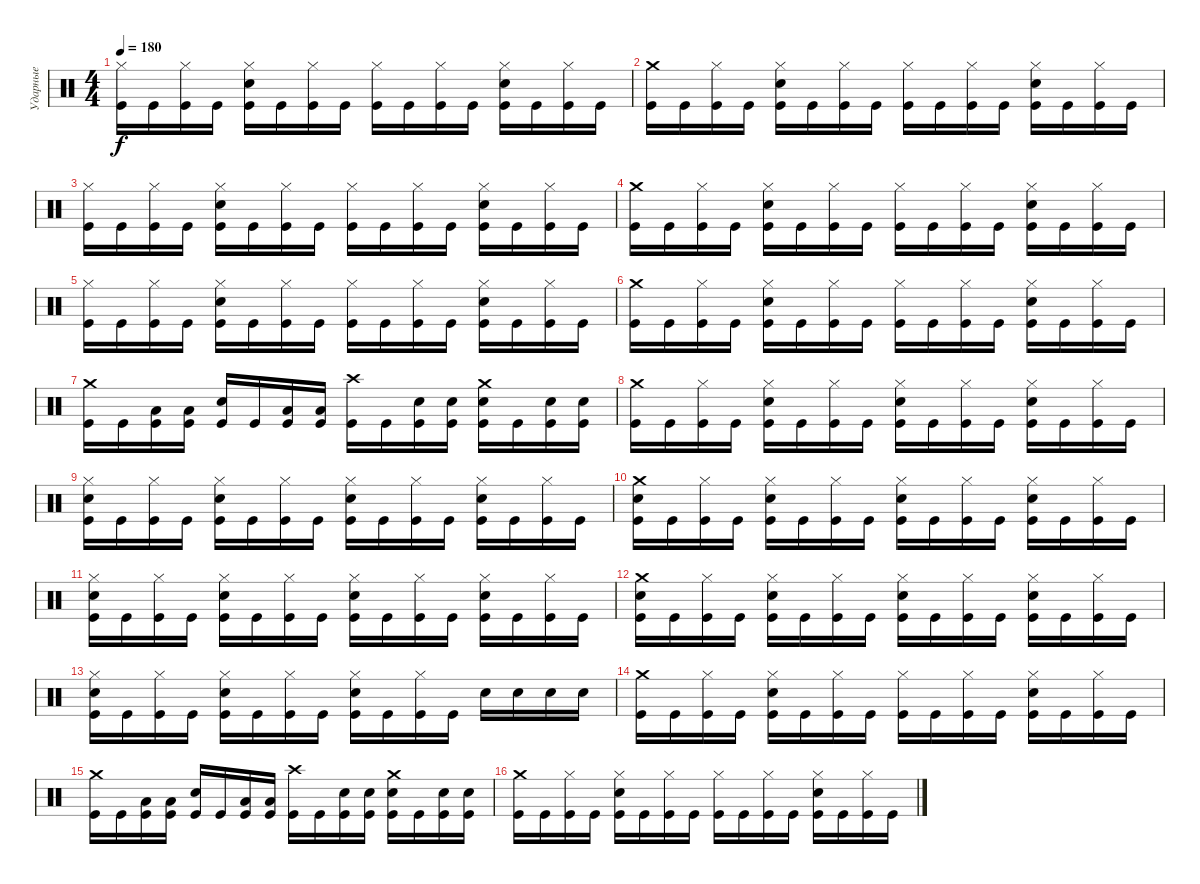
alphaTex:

\track ("Ударные" "Ударные") {instrument percussion}
\staff {score}
\articulation defaults
\ts (4 4)
\tempo 180
\clef neutral
\ks c
("Hi-Hat (closed)" "Kick (hit)").16{dy f} "Kick (hit)".16 ("Hi-Hat (closed)" "Kick (hit)").16 "Kick (hit)".16 ("Hi-Hat (closed)" "Electric Snare (hit)" "Kick (hit)").16 "Kick (hit)".16 ("Hi-Hat (closed)" "Kick (hit)").16 "Kick (hit)".16 ("Hi-Hat (closed)" "Kick (hit)").16 "Kick (hit)".16 ("Hi-Hat (closed)" "Kick (hit)").16 "Kick (hit)".16 ("Hi-Hat (closed)" "Electric Snare (hit)" "Kick (hit)").16 "Kick (hit)".16 ("Hi-Hat (closed)" "Kick (hit)").16 "Kick (hit)".16 |
("Crash medium (hit)" "Kick (hit)").16 "Kick (hit)".16 ("Hi-Hat (closed)" "Kick (hit)").16 "Kick (hit)".16 ("Hi-Hat (closed)" "Electric Snare (hit)" "Kick (hit)").16 "Kick (hit)".16 ("Hi-Hat (closed)" "Kick (hit)").16 "Kick (hit)".16 ("Hi-Hat (closed)" "Kick (hit)").16 "Kick (hit)".16 ("Hi-Hat (closed)" "Kick (hit)").16 "Kick (hit)".16 ("Hi-Hat (closed)" "Electric Snare (hit)" "Kick (hit)").16 "Kick (hit)".16 ("Hi-Hat (closed)" "Kick (hit)").16 "Kick (hit)".16 |
("Hi-Hat (closed)" "Kick (hit)").16 "Kick (hit)".16 ("Hi-Hat (closed)" "Kick (hit)").16 "Kick (hit)".16 ("Hi-Hat (closed)" "Electric Snare (hit)" "Kick (hit)").16 "Kick (hit)".16 ("Hi-Hat (closed)" "Kick (hit)").16 "Kick (hit)".16 ("Hi-Hat (closed)" "Kick (hit)").16 "Kick (hit)".16 ("Hi-Hat (closed)" "Kick (hit)").16 "Kick (hit)".16 ("Hi-Hat (closed)" "Electric Snare (hit)" "Kick (hit)").16 "Kick (hit)".16 ("Hi-Hat (closed)" "Kick (hit)").16 "Kick (hit)".16 |
("Crash medium (hit)" "Kick (hit)").16 "Kick (hit)".16 ("Hi-Hat (closed)" "Kick (hit)").16 "Kick (hit)".16 ("Hi-Hat (closed)" "Electric Snare (hit)" "Kick (hit)").16 "Kick (hit)".16 ("Hi-Hat (closed)" "Kick (hit)").16 "Kick (hit)".16 ("Hi-Hat (closed)" "Kick (hit)").16 "Kick (hit)".16 ("Hi-Hat (closed)" "Kick (hit)").16 "Kick (hit)".16 ("Hi-Hat (closed)" "Electric Snare (hit)" "Kick (hit)").16 "Kick (hit)".16 ("Hi-Hat (closed)" "Kick (hit)").16 "Kick (hit)".16 |
("Hi-Hat (closed)" "Kick (hit)").16 "Kick (hit)".16 ("Hi-Hat (closed)" "Kick (hit)").16 "Kick (hit)".16 ("Hi-Hat (closed)" "Electric Snare (hit)" "Kick (hit)").16 "Kick (hit)".16 ("Hi-Hat (closed)" "Kick (hit)").16 "Kick (hit)".16 ("Hi-Hat (closed)" "Kick (hit)").16 "Kick (hit)".16 ("Hi-Hat (closed)" "Kick (hit)").16 "Kick (hit)".16 ("Hi-Hat (closed)" "Electric Snare (hit)" "Kick (hit)").16 "Kick (hit)".16 ("Hi-Hat (closed)" "Kick (hit)").16 "Kick (hit)".16 |
("Crash medium (hit)" "Kick (hit)").16 "Kick (hit)".16 ("Hi-Hat (closed)" "Kick (hit)").16 "Kick (hit)".16 ("Hi-Hat (closed)" "Electric Snare (hit)" "Kick (hit)").16 "Kick (hit)".16 ("Hi-Hat (closed)" "Kick (hit)").16 "Kick (hit)".16 ("Hi-Hat (closed)" "Kick (hit)").16 "Kick (hit)".16 ("Hi-Hat (closed)" "Kick (hit)").16 "Kick (hit)".16 ("Hi-Hat (closed)" "Electric Snare (hit)" "Kick (hit)").16 "Kick (hit)".16 ("Hi-Hat (closed)" "Kick (hit)").16 "Kick (hit)".16 |
("Crash medium (hit)" "Kick (hit)").16 "Kick (hit)".16 ("Low Tom (hit)" "Kick (hit)").16 ("Low Tom (hit)" "Kick (hit)").16 ("Electric Snare (hit)" "Kick (hit)").16 "Kick (hit)".16 ("Low Tom (hit)" "Kick (hit)").16 ("Low Tom (hit)" "Kick (hit)").16 ("Crash high (hit)" "Kick (hit)").16 "Kick (hit)".16 ("Electric Snare (hit)" "Kick (hit)").16 ("Electric Snare (hit)" "Kick (hit)").16 ("Crash medium (hit)" "Electric Snare (hit)" "Kick (hit)").16 "Kick (hit)".16 ("Electric Snare (hit)" "Kick (hit)").16 ("Electric Snare (hit)" "Kick (hit)").16 |
("Crash medium (hit)" "Kick (hit)").16 "Kick (hit)".16 ("Hi-Hat (closed)" "Kick (hit)").16 "Kick (hit)".16 ("Hi-Hat (closed)" "Electric Snare (hit)" "Kick (hit)").16 "Kick (hit)".16 ("Hi-Hat (closed)" "Kick (hit)").16 "Kick (hit)".16 ("Hi-Hat (closed)" "Electric Snare (hit)" "Kick (hit)").16 "Kick (hit)".16 ("Hi-Hat (closed)" "Kick (hit)").16 "Kick (hit)".16 ("Hi-Hat (closed)" "Electric Snare (hit)" "Kick (hit)").16 "Kick (hit)".16 ("Hi-Hat (closed)" "Kick (hit)").16 "Kick (hit)".16 |
("Hi-Hat (closed)" "Electric Snare (hit)" "Kick (hit)").16 "Kick (hit)".16 ("Hi-Hat (closed)" "Kick (hit)").16 "Kick (hit)".16 ("Hi-Hat (closed)" "Electric Snare (hit)" "Kick (hit)").16 "Kick (hit)".16 ("Hi-Hat (closed)" "Kick (hit)").16 "Kick (hit)".16 ("Hi-Hat (closed)" "Electric Snare (hit)" "Kick (hit)").16 "Kick (hit)".16 ("Hi-Hat (closed)" "Kick (hit)").16 "Kick (hit)".16 ("Hi-Hat (closed)" "Electric Snare (hit)" "Kick (hit)").16 "Kick (hit)".16 ("Hi-Hat (closed)" "Kick (hit)").16 "Kick (hit)".16 |
("Crash medium (hit)" "Electric Snare (hit)" "Kick (hit)").16 "Kick (hit)".16 ("Hi-Hat (closed)" "Kick (hit)").16 "Kick (hit)".16 ("Hi-Hat (closed)" "Electric Snare (hit)" "Kick (hit)").16 "Kick (hit)".16 ("Hi-Hat (closed)" "Kick (hit)").16 "Kick (hit)".16 ("Hi-Hat (closed)" "Electric Snare (hit)" "Kick (hit)").16 "Kick (hit)".16 ("Hi-Hat (closed)" "Kick (hit)").16 "Kick (hit)".16 ("Hi-Hat (closed)" "Electric Snare (hit)" "Kick (hit)").16 "Kick (hit)".16 ("Hi-Hat (closed)" "Kick (hit)").16 "Kick (hit)".16 |
("Hi-Hat (closed)" "Electric Snare (hit)" "Kick (hit)").16 "Kick (hit)".16 ("Hi-Hat (closed)" "Kick (hit)").16 "Kick (hit)".16 ("Hi-Hat (closed)" "Electric Snare (hit)" "Kick (hit)").16 "Kick (hit)".16 ("Hi-Hat (closed)" "Kick (hit)").16 "Kick (hit)".16 ("Hi-Hat (closed)" "Electric Snare (hit)" "Kick (hit)").16 "Kick (hit)".16 ("Hi-Hat (closed)" "Kick (hit)").16 "Kick (hit)".16 ("Hi-Hat (closed)" "Electric Snare (hit)" "Kick (hit)").16 "Kick (hit)".16 ("Hi-Hat (closed)" "Kick (hit)").16 "Kick (hit)".16 |
("Crash medium (hit)" "Electric Snare (hit)" "Kick (hit)").16 "Kick (hit)".16 ("Hi-Hat (closed)" "Kick (hit)").16 "Kick (hit)".16 ("Hi-Hat (closed)" "Electric Snare (hit)" "Kick (hit)").16 "Kick (hit)".16 ("Hi-Hat (closed)" "Kick (hit)").16 "Kick (hit)".16 ("Hi-Hat (closed)" "Electric Snare (hit)" "Kick (hit)").16 "Kick (hit)".16 ("Hi-Hat (closed)" "Kick (hit)").16 "Kick (hit)".16 ("Hi-Hat (closed)" "Electric Snare (hit)" "Kick (hit)").16 "Kick (hit)".16 ("Hi-Hat (closed)" "Kick (hit)").16 "Kick (hit)".16 |
("Hi-Hat (closed)" "Electric Snare (hit)" "Kick (hit)").16 "Kick (hit)".16 ("Hi-Hat (closed)" "Kick (hit)").16 "Kick (hit)".16 ("Hi-Hat (closed)" "Electric Snare (hit)" "Kick (hit)").16 "Kick (hit)".16 ("Hi-Hat (closed)" "Kick (hit)").16 "Kick (hit)".16 ("Hi-Hat (closed)" "Electric Snare (hit)" "Kick (hit)").16 "Kick (hit)".16 ("Hi-Hat (closed)" "Kick (hit)").16 "Kick (hit)".16 "Electric Snare (hit)".16 "Electric Snare (hit)".16 "Electric Snare (hit)".16 "Electric Snare (hit)".16 |
("Crash medium (hit)" "Kick (hit)").16 "Kick (hit)".16 ("Hi-Hat (closed)" "Kick (hit)").16 "Kick (hit)".16 ("Hi-Hat (closed)" "Electric Snare (hit)" "Kick (hit)").16 "Kick (hit)".16 ("Hi-Hat (closed)" "Kick (hit)").16 "Kick (hit)".16 ("Hi-Hat (closed)" "Kick (hit)").16 "Kick (hit)".16 ("Hi-Hat (closed)" "Kick (hit)").16 "Kick (hit)".16 ("Hi-Hat (closed)" "Electric Snare (hit)" "Kick (hit)").16 "Kick (hit)".16 ("Hi-Hat (closed)" "Kick (hit)").16 "Kick (hit)".16 |
("Crash medium (hit)" "Kick (hit)").16 "Kick (hit)".16 ("Low Tom (hit)" "Kick (hit)").16 ("Low Tom (hit)" "Kick (hit)").16 ("Electric Snare (hit)" "Kick (hit)").16 "Kick (hit)".16 ("Low Tom (hit)" "Kick (hit)").16 ("Low Tom (hit)" "Kick (hit)").16 ("Crash high (hit)" "Kick (hit)").16 "Kick (hit)".16 ("Electric Snare (hit)" "Kick (hit)").16 ("Electric Snare (hit)" "Kick (hit)").16 ("Crash medium (hit)" "Electric Snare (hit)" "Kick (hit)").16 "Kick (hit)".16 ("Electric Snare (hit)" "Kick (hit)").16 ("Electric Snare (hit)" "Kick (hit)").16 |
("Crash medium (hit)" "Kick (hit)").16 "Kick (hit)".16 ("Hi-Hat (closed)" "Kick (hit)").16 "Kick (hit)".16 ("Hi-Hat (closed)" "Electric Snare (hit)" "Kick (hit)").16 "Kick (hit)".16 ("Hi-Hat (closed)" "Kick (hit)").16 "Kick (hit)".16 ("Hi-Hat (closed)" "Kick (hit)").16 "Kick (hit)".16 ("Hi-Hat (closed)" "Kick (hit)").16 "Kick (hit)".16 ("Hi-Hat (closed)" "Electric Snare (hit)" "Kick (hit)").16 "Kick (hit)".16 ("Hi-Hat (closed)" "Kick (hit)").16 "Kick (hit)".16
